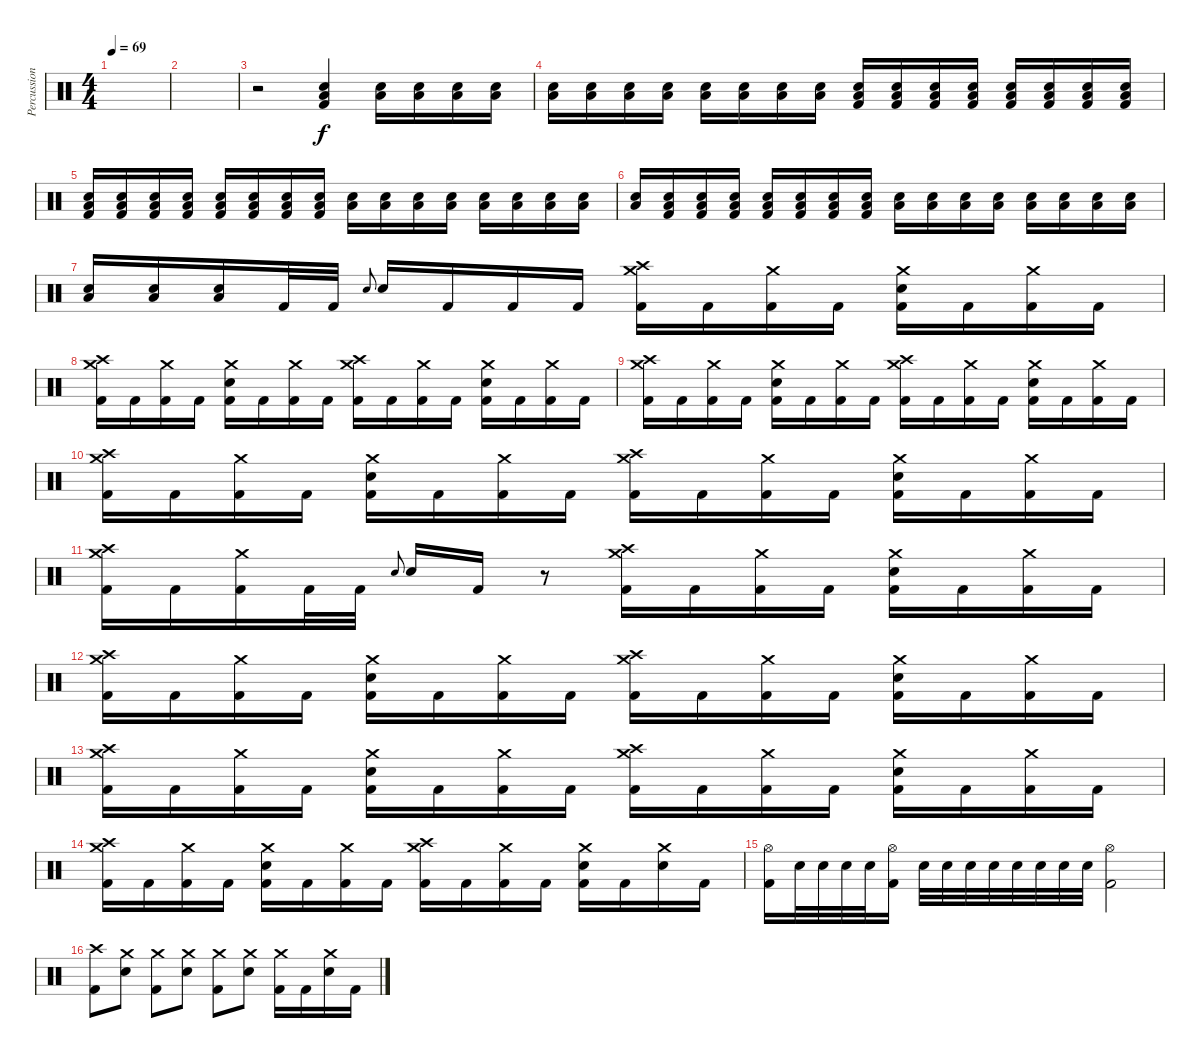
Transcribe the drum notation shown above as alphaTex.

\track ("Percussion" "Percussion") {instrument percussion}
\staff {score}
\articulation defaults
\ts (4 4)
\tempo 69
\clef neutral
\ks c
|
|
r.2 ("Low Floor Tom (hit)" "Electric Snare (hit)" "Kick (hit) 2").4 ("Low Floor Tom (hit)" "Electric Snare (hit)").16 ("Low Floor Tom (hit)" "Electric Snare (hit)").16 ("Low Floor Tom (hit)" "Electric Snare (hit)").16 ("Low Floor Tom (hit)" "Electric Snare (hit)").16 |
("Low Floor Tom (hit)" "Electric Snare (hit)").16 ("Low Floor Tom (hit)" "Electric Snare (hit)").16 ("Low Floor Tom (hit)" "Electric Snare (hit)").16 ("Low Floor Tom (hit)" "Electric Snare (hit)").16 ("Low Floor Tom (hit)" "Electric Snare (hit)").16 ("Low Floor Tom (hit)" "Electric Snare (hit)").16 ("Low Floor Tom (hit)" "Electric Snare (hit)").16 ("Low Floor Tom (hit)" "Electric Snare (hit)").16 ("Low Floor Tom (hit)" "Electric Snare (hit)" "Kick (hit) 2").16 ("Low Floor Tom (hit)" "Electric Snare (hit)" "Kick (hit) 2").16 ("Low Floor Tom (hit)" "Electric Snare (hit)" "Kick (hit) 2").16 ("Low Floor Tom (hit)" "Electric Snare (hit)" "Kick (hit) 2").16 ("Low Floor Tom (hit)" "Electric Snare (hit)" "Kick (hit) 2").16 ("Low Floor Tom (hit)" "Electric Snare (hit)" "Kick (hit) 2").16 ("Low Floor Tom (hit)" "Electric Snare (hit)" "Kick (hit) 2").16 ("Low Floor Tom (hit)" "Electric Snare (hit)" "Kick (hit) 2").16 |
("Low Floor Tom (hit)" "Electric Snare (hit)" "Kick (hit) 2").16 ("Low Floor Tom (hit)" "Electric Snare (hit)" "Kick (hit) 2").16 ("Low Floor Tom (hit)" "Electric Snare (hit)" "Kick (hit) 2").16 ("Low Floor Tom (hit)" "Electric Snare (hit)" "Kick (hit) 2").16 ("Low Floor Tom (hit)" "Electric Snare (hit)" "Kick (hit) 2").16 ("Low Floor Tom (hit)" "Electric Snare (hit)" "Kick (hit) 2").16 ("Low Floor Tom (hit)" "Electric Snare (hit)" "Kick (hit) 2").16 ("Low Floor Tom (hit)" "Electric Snare (hit)" "Kick (hit) 2").16 ("Low Floor Tom (hit)" "Electric Snare (hit)").16 ("Low Floor Tom (hit)" "Electric Snare (hit)").16 ("Low Floor Tom (hit)" "Electric Snare (hit)").16 ("Low Floor Tom (hit)" "Electric Snare (hit)").16 ("Low Floor Tom (hit)" "Electric Snare (hit)").16 ("Low Floor Tom (hit)" "Electric Snare (hit)").16 ("Low Floor Tom (hit)" "Electric Snare (hit)").16 ("Low Floor Tom (hit)" "Electric Snare (hit)").16 |
("Low Floor Tom (hit)" "Electric Snare (hit)").16 ("Low Floor Tom (hit)" "Electric Snare (hit)" "Kick (hit) 2").16 ("Low Floor Tom (hit)" "Electric Snare (hit)" "Kick (hit) 2").16 ("Low Floor Tom (hit)" "Electric Snare (hit)" "Kick (hit) 2").16 ("Low Floor Tom (hit)" "Electric Snare (hit)" "Kick (hit) 2").16 ("Low Floor Tom (hit)" "Electric Snare (hit)" "Kick (hit) 2").16 ("Low Floor Tom (hit)" "Electric Snare (hit)" "Kick (hit) 2").16 ("Low Floor Tom (hit)" "Electric Snare (hit)" "Kick (hit) 2").16 ("Low Floor Tom (hit)" "Electric Snare (hit)").16 ("Low Floor Tom (hit)" "Electric Snare (hit)").16 ("Low Floor Tom (hit)" "Electric Snare (hit)").16 ("Low Floor Tom (hit)" "Electric Snare (hit)").16 ("Low Floor Tom (hit)" "Electric Snare (hit)").16 ("Low Floor Tom (hit)" "Electric Snare (hit)").16 ("Low Floor Tom (hit)" "Electric Snare (hit)").16 ("Low Floor Tom (hit)" "Electric Snare (hit)").16 |
("Low Floor Tom (hit)" "Electric Snare (hit)").16 ("Low Floor Tom (hit)" "Electric Snare (hit)").16 ("Low Floor Tom (hit)" "Electric Snare (hit)").16 "Kick (hit) 2".32 "Kick (hit) 2".32 "Electric Snare (hit)".8{gr onbeat} "Electric Snare (hit)".16 "Kick (hit) 2".16 "Kick (hit) 2".16 "Kick (hit) 2".16 ("Crash high (hit)" "Crash medium (hit)" "Kick (hit) 2").16 "Kick (hit) 2".16 ("Crash medium (hit)" "Kick (hit) 2").16 "Kick (hit) 2".16 ("Crash medium (hit)" "Electric Snare (hit)" "Kick (hit) 2").16 "Kick (hit) 2".16 ("Crash medium (hit)" "Kick (hit) 2").16 "Kick (hit) 2".16 |
("Crash high (hit)" "Crash medium (hit)" "Kick (hit) 2").16 "Kick (hit) 2".16 ("Crash medium (hit)" "Kick (hit) 2").16 "Kick (hit) 2".16 ("Crash medium (hit)" "Electric Snare (hit)" "Kick (hit) 2").16 "Kick (hit) 2".16 ("Crash medium (hit)" "Kick (hit) 2").16 "Kick (hit) 2".16 ("Crash high (hit)" "Crash medium (hit)" "Kick (hit) 2").16 "Kick (hit) 2".16 ("Crash medium (hit)" "Kick (hit) 2").16 "Kick (hit) 2".16 ("Crash medium (hit)" "Electric Snare (hit)" "Kick (hit) 2").16 "Kick (hit) 2".16 ("Crash medium (hit)" "Kick (hit) 2").16 "Kick (hit) 2".16 |
("Crash high (hit)" "Crash medium (hit)" "Kick (hit) 2").16 "Kick (hit) 2".16 ("Crash medium (hit)" "Kick (hit) 2").16 "Kick (hit) 2".16 ("Crash medium (hit)" "Electric Snare (hit)" "Kick (hit) 2").16 "Kick (hit) 2".16 ("Crash medium (hit)" "Kick (hit) 2").16 "Kick (hit) 2".16 ("Crash high (hit)" "Crash medium (hit)" "Kick (hit) 2").16 "Kick (hit) 2".16 ("Crash medium (hit)" "Kick (hit) 2").16 "Kick (hit) 2".16 ("Crash medium (hit)" "Electric Snare (hit)" "Kick (hit) 2").16 "Kick (hit) 2".16 ("Crash medium (hit)" "Kick (hit) 2").16 "Kick (hit) 2".16 |
("Crash high (hit)" "Crash medium (hit)" "Kick (hit) 2").16 "Kick (hit) 2".16 ("Crash medium (hit)" "Kick (hit) 2").16 "Kick (hit) 2".16 ("Crash medium (hit)" "Electric Snare (hit)" "Kick (hit) 2").16 "Kick (hit) 2".16 ("Crash medium (hit)" "Kick (hit) 2").16 "Kick (hit) 2".16 ("Crash high (hit)" "Crash medium (hit)" "Kick (hit) 2").16 "Kick (hit) 2".16 ("Crash medium (hit)" "Kick (hit) 2").16 "Kick (hit) 2".16 ("Crash medium (hit)" "Electric Snare (hit)" "Kick (hit) 2").16 "Kick (hit) 2".16 ("Crash medium (hit)" "Kick (hit) 2").16 "Kick (hit) 2".16 |
("Crash high (hit)" "Crash medium (hit)" "Kick (hit) 2").16 "Kick (hit) 2".16 ("Crash medium (hit)" "Kick (hit) 2").16 "Kick (hit) 2".32 "Kick (hit) 2".32 "Electric Snare (hit)".8{gr onbeat} "Electric Snare (hit)".16 "Kick (hit) 2".16 r.8 ("Crash high (hit)" "Crash medium (hit)" "Kick (hit) 2").16 "Kick (hit) 2".16 ("Crash medium (hit)" "Kick (hit) 2").16 "Kick (hit) 2".16 ("Crash medium (hit)" "Electric Snare (hit)" "Kick (hit) 2").16 "Kick (hit) 2".16 ("Crash medium (hit)" "Kick (hit) 2").16 "Kick (hit) 2".16 |
("Crash high (hit)" "Crash medium (hit)" "Kick (hit) 2").16 "Kick (hit) 2".16 ("Crash medium (hit)" "Kick (hit) 2").16 "Kick (hit) 2".16 ("Crash medium (hit)" "Electric Snare (hit)" "Kick (hit) 2").16 "Kick (hit) 2".16 ("Crash medium (hit)" "Kick (hit) 2").16 "Kick (hit) 2".16 ("Crash high (hit)" "Crash medium (hit)" "Kick (hit) 2").16 "Kick (hit) 2".16 ("Crash medium (hit)" "Kick (hit) 2").16 "Kick (hit) 2".16 ("Crash medium (hit)" "Electric Snare (hit)" "Kick (hit) 2").16 "Kick (hit) 2".16 ("Crash medium (hit)" "Kick (hit) 2").16 "Kick (hit) 2".16 |
("Crash high (hit)" "Crash medium (hit)" "Kick (hit) 2").16 "Kick (hit) 2".16 ("Crash medium (hit)" "Kick (hit) 2").16 "Kick (hit) 2".16 ("Crash medium (hit)" "Electric Snare (hit)" "Kick (hit) 2").16 "Kick (hit) 2".16 ("Crash medium (hit)" "Kick (hit) 2").16 "Kick (hit) 2".16 ("Crash high (hit)" "Crash medium (hit)" "Kick (hit) 2").16 "Kick (hit) 2".16 ("Crash medium (hit)" "Kick (hit) 2").16 "Kick (hit) 2".16 ("Crash medium (hit)" "Electric Snare (hit)" "Kick (hit) 2").16 "Kick (hit) 2".16 ("Crash medium (hit)" "Kick (hit) 2").16 "Kick (hit) 2".16 |
("Crash high (hit)" "Crash medium (hit)" "Kick (hit) 2").16 "Kick (hit) 2".16 ("Crash medium (hit)" "Kick (hit) 2").16 "Kick (hit) 2".16 ("Crash medium (hit)" "Electric Snare (hit)" "Kick (hit) 2").16 "Kick (hit) 2".16 ("Crash medium (hit)" "Kick (hit) 2").16 "Kick (hit) 2".16 ("Crash high (hit)" "Crash medium (hit)" "Kick (hit) 2").16 "Kick (hit) 2".16 ("Crash medium (hit)" "Kick (hit) 2").16 "Kick (hit) 2".16 ("Crash medium (hit)" "Electric Snare (hit)" "Kick (hit) 2").16 "Kick (hit) 2".16 ("Crash medium (hit)" "Electric Snare (hit)").16 "Kick (hit) 2".16 |
("Hi-Hat (open)" "Kick (hit) 2").16 "Electric Snare (hit)".32 "Electric Snare (hit)".32 "Electric Snare (hit)".32 "Electric Snare (hit)".32 ("Hi-Hat (open)" "Kick (hit) 2").16 "Electric Snare (hit)".32 "Electric Snare (hit)".32 "Electric Snare (hit)".32 "Electric Snare (hit)".32 "Electric Snare (hit)".32 "Electric Snare (hit)".32 "Electric Snare (hit)".32 "Electric Snare (hit)".32 ("Hi-Hat (open)" "Kick (hit) 2").2 |
("Crash high (hit)" "Kick (hit) 2").8 ("Crash medium (hit)" "Electric Snare (hit)").8 ("Crash medium (hit)" "Kick (hit) 2").8 ("Crash medium (hit)" "Electric Snare (hit)").8 ("Crash medium (hit)" "Kick (hit) 2").8 ("Crash medium (hit)" "Electric Snare (hit)").8 ("Crash medium (hit)" "Kick (hit) 2").16 "Kick (hit) 2".16 ("Crash medium (hit)" "Electric Snare (hit)").16 "Kick (hit) 2".16
